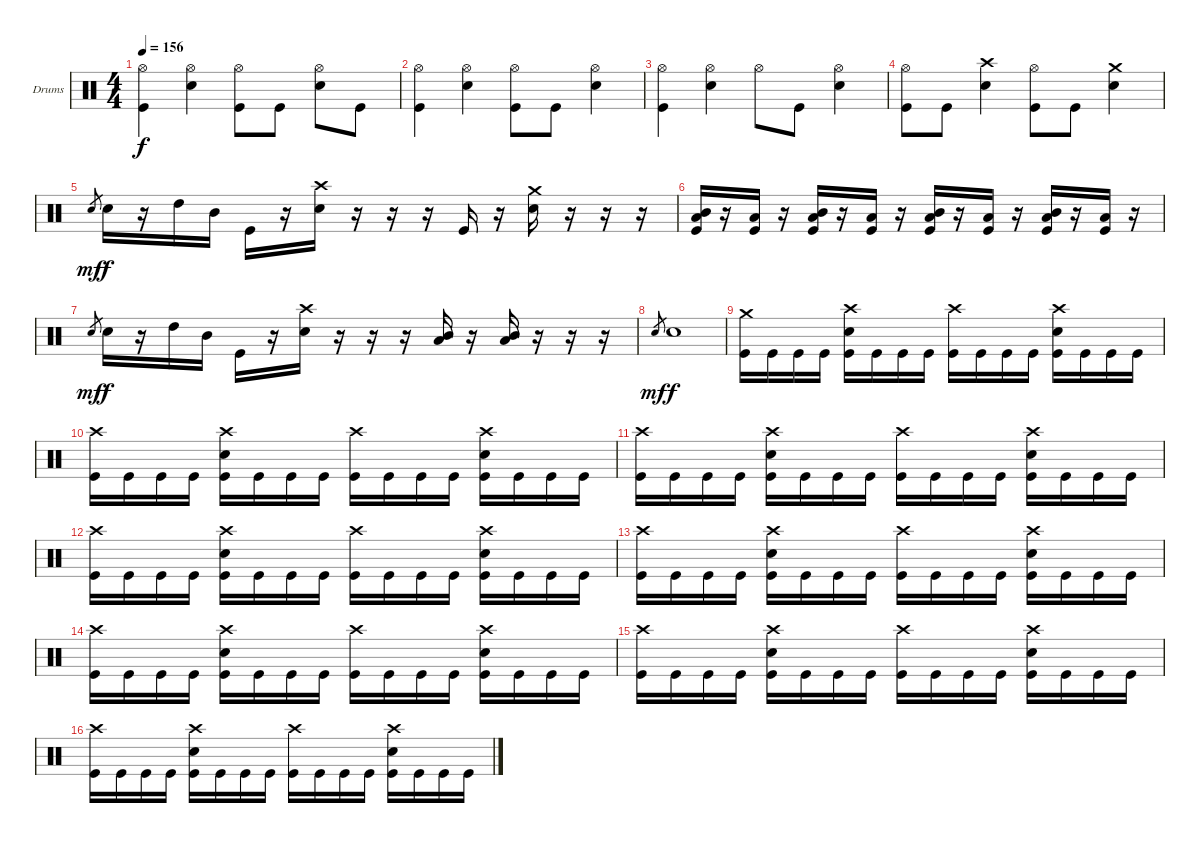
\bracketExtendMode groupsimilarinstruments
\firstSystemTrackNameOrientation horizontal
\otherSystemsTrackNameOrientation horizontal
\track ("Drumkit" "Drums") {instrument percussion}
\staff {score}
\articulation defaults
\ts (4 4)
\tempo 156
\clef neutral
\ks c
("Hi-Hat (open)" "Kick (hit)").4{dy f} ("Hi-Hat (open)" "Snare (hit) 2").4 ("Hi-Hat (open)" "Kick (hit)").8 "Kick (hit)".8 ("Hi-Hat (open)" "Snare (hit) 2").8 "Kick (hit)".8 |
("Hi-Hat (open)" "Kick (hit)").4 ("Hi-Hat (open)" "Snare (hit) 2").4 ("Hi-Hat (open)" "Kick (hit)").8 "Kick (hit)".8 ("Hi-Hat (open)" "Snare (hit) 2").4 |
("Hi-Hat (open)" "Kick (hit)").4 ("Hi-Hat (open)" "Snare (hit) 2").4 "Hi-Hat (open)".8 "Kick (hit)".8 ("Hi-Hat (open)" "Snare (hit) 2").4 |
("Hi-Hat (open)" "Kick (hit)").8 "Kick (hit)".8 ("Crash high (hit)" "Snare (hit) 2").4 ("Hi-Hat (open)" "Kick (hit)").8 "Kick (hit)".8 ("Crash medium (hit)" "Snare (hit) 2").4 |
"Snare (hit) 2".8{gr dy mf} "Snare (hit) 2".16{dy f} r.16 "High Tom (hit)".16 "Mid Tom (hit)".16 "Kick (hit)".16 r.16 ("Crash high (hit)" "Snare (hit) 2").16 r.16 r.16 r.16 "Kick (hit)".16 r.16 ("Crash medium (hit)" "Snare (hit) 2").16 r.16 r.16 r.16 |
("Low Tom (hit)" "Mid Tom (hit)" "Kick (hit)").16 r.16 ("Low Tom (hit)" "Kick (hit)").16 r.16 ("Low Tom (hit)" "Mid Tom (hit)" "Kick (hit)").16 r.16 ("Low Tom (hit)" "Kick (hit)").16 r.16 ("Low Tom (hit)" "Mid Tom (hit)" "Kick (hit)").16 r.16 ("Low Tom (hit)" "Kick (hit)").16 r.16 ("Low Tom (hit)" "Mid Tom (hit)" "Kick (hit)").16 r.16 ("Low Tom (hit)" "Kick (hit)").16 r.16 |
"Snare (hit) 2".8{gr dy mf} "Snare (hit) 2".16{dy f} r.16 "High Tom (hit)".16 "Mid Tom (hit)".16 "Kick (hit)".16 r.16 ("Crash high (hit)" "Snare (hit) 2").16 r.16 r.16 r.16 ("Mid Tom (hit)" "Low Tom (hit)").16 r.16 ("Mid Tom (hit)" "Low Tom (hit)").16 r.16 r.16 r.16 |
"Snare (hit) 2".8{gr dy mf} "Snare (hit) 2".1{dy f} |
("Crash medium (hit)" "Kick (hit)").16 "Kick (hit)".16 "Kick (hit)".16 "Kick (hit)".16 ("Crash high (hit)" "Snare (hit) 2" "Kick (hit)").16 "Kick (hit)".16 "Kick (hit)".16 "Kick (hit)".16 ("Crash high (hit)" "Kick (hit)").16 "Kick (hit)".16 "Kick (hit)".16 "Kick (hit)".16 ("Crash high (hit)" "Snare (hit) 2" "Kick (hit)").16 "Kick (hit)".16 "Kick (hit)".16 "Kick (hit)".16 |
("Crash high (hit)" "Kick (hit)").16 "Kick (hit)".16 "Kick (hit)".16 "Kick (hit)".16 ("Crash high (hit)" "Snare (hit) 2" "Kick (hit)").16 "Kick (hit)".16 "Kick (hit)".16 "Kick (hit)".16 ("Crash high (hit)" "Kick (hit)").16 "Kick (hit)".16 "Kick (hit)".16 "Kick (hit)".16 ("Crash high (hit)" "Snare (hit) 2" "Kick (hit)").16 "Kick (hit)".16 "Kick (hit)".16 "Kick (hit)".16 |
("Crash high (hit)" "Kick (hit)").16 "Kick (hit)".16 "Kick (hit)".16 "Kick (hit)".16 ("Crash high (hit)" "Snare (hit) 2" "Kick (hit)").16 "Kick (hit)".16 "Kick (hit)".16 "Kick (hit)".16 ("Crash high (hit)" "Kick (hit)").16 "Kick (hit)".16 "Kick (hit)".16 "Kick (hit)".16 ("Crash high (hit)" "Snare (hit) 2" "Kick (hit)").16 "Kick (hit)".16 "Kick (hit)".16 "Kick (hit)".16 |
("Crash high (hit)" "Kick (hit)").16 "Kick (hit)".16 "Kick (hit)".16 "Kick (hit)".16 ("Crash high (hit)" "Snare (hit) 2" "Kick (hit)").16 "Kick (hit)".16 "Kick (hit)".16 "Kick (hit)".16 ("Crash high (hit)" "Kick (hit)").16 "Kick (hit)".16 "Kick (hit)".16 "Kick (hit)".16 ("Crash high (hit)" "Snare (hit) 2" "Kick (hit)").16 "Kick (hit)".16 "Kick (hit)".16 "Kick (hit)".16 |
("Crash high (hit)" "Kick (hit)").16 "Kick (hit)".16 "Kick (hit)".16 "Kick (hit)".16 ("Crash high (hit)" "Snare (hit) 2" "Kick (hit)").16 "Kick (hit)".16 "Kick (hit)".16 "Kick (hit)".16 ("Crash high (hit)" "Kick (hit)").16 "Kick (hit)".16 "Kick (hit)".16 "Kick (hit)".16 ("Crash high (hit)" "Snare (hit) 2" "Kick (hit)").16 "Kick (hit)".16 "Kick (hit)".16 "Kick (hit)".16 |
("Crash high (hit)" "Kick (hit)").16 "Kick (hit)".16 "Kick (hit)".16 "Kick (hit)".16 ("Crash high (hit)" "Snare (hit) 2" "Kick (hit)").16 "Kick (hit)".16 "Kick (hit)".16 "Kick (hit)".16 ("Crash high (hit)" "Kick (hit)").16 "Kick (hit)".16 "Kick (hit)".16 "Kick (hit)".16 ("Crash high (hit)" "Snare (hit) 2" "Kick (hit)").16 "Kick (hit)".16 "Kick (hit)".16 "Kick (hit)".16 |
("Crash high (hit)" "Kick (hit)").16 "Kick (hit)".16 "Kick (hit)".16 "Kick (hit)".16 ("Crash high (hit)" "Snare (hit) 2" "Kick (hit)").16 "Kick (hit)".16 "Kick (hit)".16 "Kick (hit)".16 ("Crash high (hit)" "Kick (hit)").16 "Kick (hit)".16 "Kick (hit)".16 "Kick (hit)".16 ("Crash high (hit)" "Snare (hit) 2" "Kick (hit)").16 "Kick (hit)".16 "Kick (hit)".16 "Kick (hit)".16 |
("Crash high (hit)" "Kick (hit)").16 "Kick (hit)".16 "Kick (hit)".16 "Kick (hit)".16 ("Crash high (hit)" "Snare (hit) 2" "Kick (hit)").16 "Kick (hit)".16 "Kick (hit)".16 "Kick (hit)".16 ("Crash high (hit)" "Kick (hit)").16 "Kick (hit)".16 "Kick (hit)".16 "Kick (hit)".16 ("Crash high (hit)" "Snare (hit) 2" "Kick (hit)").16 "Kick (hit)".16 "Kick (hit)".16 "Kick (hit)".16
